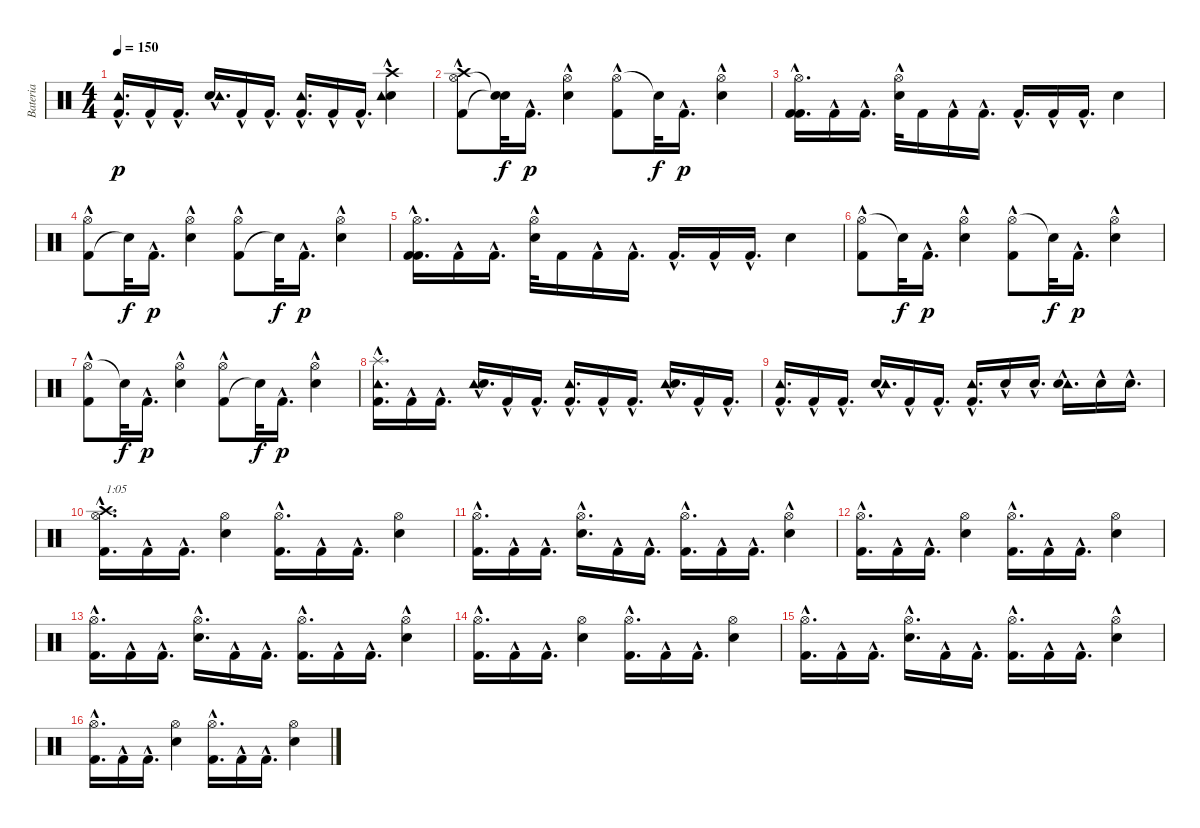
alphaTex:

\track ("Bateria" "Bateria") {instrument percussion}
\staff {score}
\articulation defaults
\ts (4 4)
\tempo 150
\clef neutral
\ks c
("Kick (hit) 2"{hac} "Tambourine (hit)").16{d dy p} "Kick (hit) 2"{hac}.16 "Kick (hit) 2"{hac}.16{d} ("Snare (hit) 2"{hac} "Tambourine (hit)").16{d} "Kick (hit) 2"{hac}.16 "Kick (hit) 2"{hac}.16{d} ("Kick (hit) 2"{hac} "Tambourine (hit)").16{d} "Kick (hit) 2"{hac}.16 "Kick (hit) 2"{hac}.16{d} ("Snare (hit) 2"{hac} "Tambourine (hit)" "Crash high (hit)").4 |
("Hi-Hat (open)" "Kick (hit) 2"{hac} "Crash high (hit)").8 ("Snare (hit)"{t} "Snare (hit)"{t}).32{dy f} "Kick (hit) 2"{hac}.16{d dy p} ("Hi-Hat (open)" "Snare (hit) 2"{hac}).4 ("Hi-Hat (open)" "Kick (hit) 2"{hac}).8 "Snare (hit)"{t}.32{dy f} "Kick (hit) 2"{hac}.16{d dy p} ("Hi-Hat (open)" "Snare (hit) 2"{hac}).4 |
("Hi-Hat (open)" "Kick (hit) 2"{hac} "Kick (hit) 2"{hac}).16{d} "Kick (hit) 2"{hac}.16 "Kick (hit) 2"{hac}.16{d} ("Snare (hit) 2"{hac} "Hi-Hat (open)").32 "Kick (hit) 2".16 "Kick (hit) 2"{hac}.16 "Kick (hit) 2"{hac}.16{d} "Kick (hit) 2"{hac}.16{d} "Kick (hit) 2"{hac}.16 "Kick (hit) 2"{hac}.16{d} "Snare (hit) 2".4 |
("Kick (hit) 2"{hac} "Hi-Hat (open)").8 "Snare (hit)"{t}.32{dy f} "Kick (hit) 2"{hac}.16{d dy p} ("Snare (hit) 2"{hac} "Hi-Hat (open)").4 ("Kick (hit) 2"{hac} "Hi-Hat (open)").8 "Snare (hit)"{t}.32{dy f} "Kick (hit) 2"{hac}.16{d dy p} ("Snare (hit) 2"{hac} "Hi-Hat (open)").4 |
("Kick (hit) 2"{hac} "Hi-Hat (open)" "Kick (hit) 2"{hac}).16{d} "Kick (hit) 2"{hac}.16 "Kick (hit) 2"{hac}.16{d} ("Snare (hit) 2"{hac} "Hi-Hat (open)").32 "Kick (hit) 2".16 "Kick (hit) 2"{hac}.16 "Kick (hit) 2"{hac}.16{d} "Kick (hit) 2"{hac}.16{d} "Kick (hit) 2"{hac}.16 "Kick (hit) 2"{hac}.16{d} "Snare (hit) 2".4 |
("Hi-Hat (open)" "Kick (hit) 2"{hac}).8 "Snare (hit)"{t}.32{dy f} "Kick (hit) 2"{hac}.16{d dy p} ("Hi-Hat (open)" "Snare (hit) 2"{hac}).4 ("Hi-Hat (open)" "Kick (hit) 2"{hac}).8 "Snare (hit)"{t}.32{dy f} "Kick (hit) 2"{hac}.16{d dy p} ("Hi-Hat (open)" "Snare (hit) 2"{hac}).4 |
("Hi-Hat (open)" "Kick (hit) 2"{hac}).8 "Snare (hit)"{t}.32{dy f} "Kick (hit) 2"{hac}.16{d dy p} ("Hi-Hat (open)" "Snare (hit) 2"{hac}).4 ("Kick (hit) 2"{hac} "Hi-Hat (open)").8 "Snare (hit)"{t}.32{dy f} "Kick (hit) 2"{hac}.16{d dy p} ("Snare (hit) 2"{hac} "Hi-Hat (open)").4 |
("Splash (hit)" "Kick (hit) 2"{hac} "Tambourine (hit)").16{d} "Kick (hit) 2"{hac}.16 "Kick (hit) 2"{hac}.16{d} ("Tambourine (hit)" "Snare (hit) 2"{hac}).16{d} "Kick (hit) 2"{hac}.16 "Kick (hit) 2"{hac}.16{d} ("Tambourine (hit)" "Kick (hit) 2"{hac}).16{d} "Kick (hit) 2"{hac}.16 "Kick (hit) 2"{hac}.16{d} ("Tambourine (hit)" "Snare (hit) 2"{hac}).16{d} "Kick (hit) 2"{hac}.16 "Kick (hit) 2"{hac}.16{d} |
("Kick (hit) 2"{hac} "Tambourine (hit)").16{d} "Kick (hit) 2"{hac}.16 "Kick (hit) 2"{hac}.16{d} ("Snare (hit) 2"{hac} "Tambourine (hit)").16{d} "Kick (hit) 2"{hac}.16 "Kick (hit) 2"{hac}.16{d} ("Kick (hit) 2"{hac} "Tambourine (hit)").16{d} "Snare (hit) 2"{hac}.16 "Snare (hit) 2"{hac}.16{d} ("Tambourine (hit)" "Snare (hit) 2"{hac}).16{d} "Snare (hit) 2"{hac}.16 "Snare (hit) 2"{hac}.16{d} |
("Kick (hit) 2"{hac} "Hi-Hat (open)" "Crash high (hit)").16{d txt "1:05"} "Kick (hit) 2"{hac}.16 "Kick (hit) 2"{hac}.16{d} ("Snare (hit) 2" "Hi-Hat (open)").4 ("Kick (hit) 2"{hac} "Hi-Hat (open)").16{d} "Kick (hit) 2"{hac}.16 "Kick (hit) 2"{hac}.16{d} ("Snare (hit) 2" "Hi-Hat (open)").4 |
("Kick (hit) 2"{hac} "Hi-Hat (open)").16{d} "Kick (hit) 2"{hac}.16 "Kick (hit) 2"{hac}.16{d} ("Hi-Hat (open)" "Snare (hit) 2"{hac}).16{d} "Kick (hit) 2"{hac}.16 "Kick (hit) 2"{hac}.16{d} ("Kick (hit) 2"{hac} "Hi-Hat (open)").16{d} "Kick (hit) 2"{hac}.16 "Kick (hit) 2"{hac}.16{d} ("Electric Snare (hit)"{hac} "Hi-Hat (open)").4 |
("Kick (hit) 2"{hac} "Hi-Hat (open)").16{d} "Kick (hit) 2"{hac}.16 "Kick (hit) 2"{hac}.16{d} ("Snare (hit) 2" "Hi-Hat (open)").4 ("Kick (hit) 2"{hac} "Hi-Hat (open)").16{d} "Kick (hit) 2"{hac}.16 "Kick (hit) 2"{hac}.16{d} ("Hi-Hat (open)" "Snare (hit) 2").4 |
("Hi-Hat (open)" "Kick (hit) 2"{hac}).16{d} "Kick (hit) 2"{hac}.16 "Kick (hit) 2"{hac}.16{d} ("Hi-Hat (open)" "Snare (hit) 2"{hac}).16{d} "Kick (hit) 2"{hac}.16 "Kick (hit) 2"{hac}.16{d} ("Kick (hit) 2"{hac} "Hi-Hat (open)").16{d} "Kick (hit) 2"{hac}.16 "Kick (hit) 2"{hac}.16{d} ("Hi-Hat (open)" "Electric Snare (hit)"{hac}).4 |
("Hi-Hat (open)" "Kick (hit) 2"{hac}).16{d} "Kick (hit) 2"{hac}.16 "Kick (hit) 2"{hac}.16{d} ("Snare (hit) 2" "Hi-Hat (open)").4 ("Hi-Hat (open)" "Kick (hit) 2"{hac}).16{d} "Kick (hit) 2"{hac}.16 "Kick (hit) 2"{hac}.16{d} ("Snare (hit) 2" "Hi-Hat (open)").4 |
("Hi-Hat (open)" "Kick (hit) 2"{hac}).16{d} "Kick (hit) 2"{hac}.16 "Kick (hit) 2"{hac}.16{d} ("Snare (hit) 2"{hac} "Hi-Hat (open)").16{d} "Kick (hit) 2"{hac}.16 "Kick (hit) 2"{hac}.16{d} ("Kick (hit) 2"{hac} "Hi-Hat (open)").16{d} "Kick (hit) 2"{hac}.16 "Kick (hit) 2"{hac}.16{d} ("Electric Snare (hit)"{hac} "Hi-Hat (open)").4 |
("Kick (hit) 2"{hac} "Hi-Hat (open)").16{d} "Kick (hit) 2"{hac}.16 "Kick (hit) 2"{hac}.16{d} ("Snare (hit) 2" "Hi-Hat (open)").4 ("Kick (hit) 2"{hac} "Hi-Hat (open)").16{d} "Kick (hit) 2"{hac}.16 "Kick (hit) 2"{hac}.16{d} ("Snare (hit) 2" "Hi-Hat (open)").4
